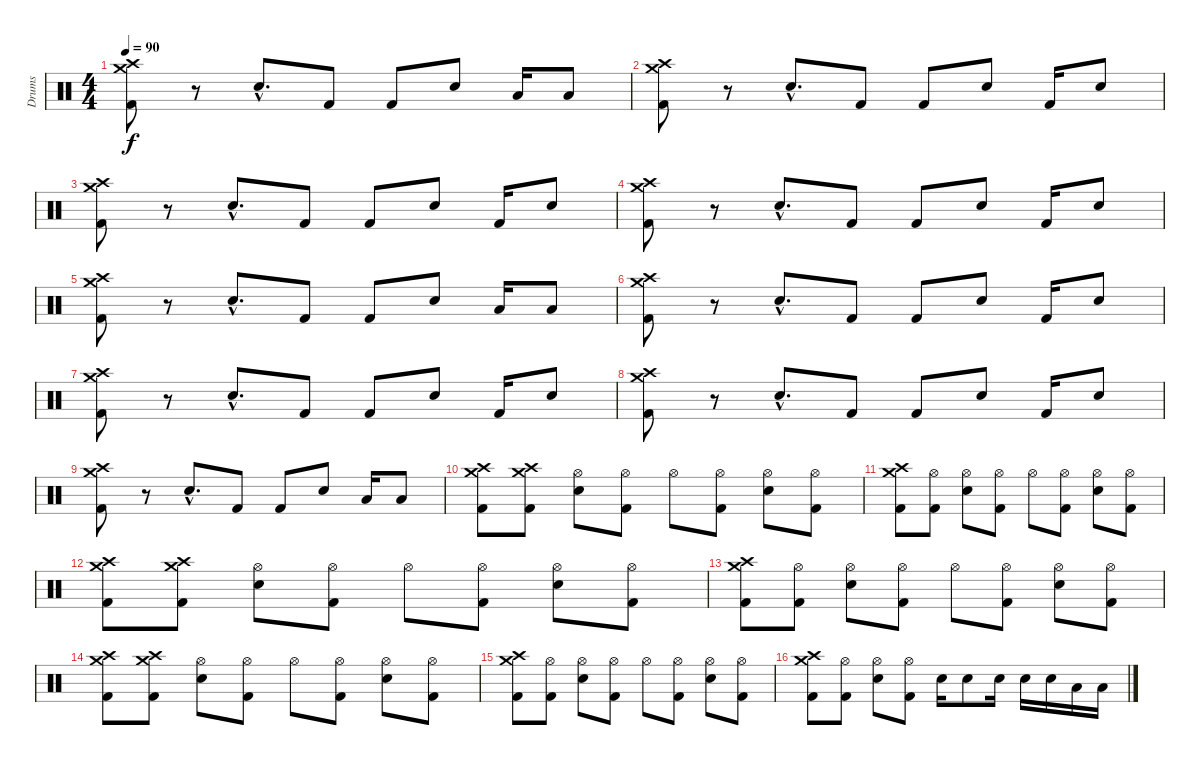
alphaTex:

\track ("Drums" "Drums") {instrument percussion}
\staff {score}
\articulation defaults
\ts (4 4)
\tempo 90
\clef neutral
\ks c
("Crash high (hit)" "Crash medium (hit)" "Kick (hit) 2").8{dy f} r.8 "Snare (hit) 2"{hac}.8{d} "Kick (hit) 2".8 "Kick (hit) 2".8 "Snare (hit) 2".8 "Low Tom (hit)".16 "Low Tom (hit)".8 |
("Crash high (hit)" "Crash medium (hit)" "Kick (hit) 2").8 r.8 "Snare (hit) 2"{hac}.8{d} "Kick (hit) 2".8 "Kick (hit) 2".8 "Snare (hit) 2".8 "Kick (hit) 2".16 "Snare (hit) 2".8 |
("Crash high (hit)" "Crash medium (hit)" "Kick (hit) 2").8 r.8 "Snare (hit) 2"{hac}.8{d} "Kick (hit) 2".8 "Kick (hit) 2".8 "Snare (hit) 2".8 "Kick (hit) 2".16 "Snare (hit) 2".8 |
("Crash high (hit)" "Crash medium (hit)" "Kick (hit) 2").8 r.8 "Snare (hit) 2"{hac}.8{d} "Kick (hit) 2".8 "Kick (hit) 2".8 "Snare (hit) 2".8 "Kick (hit) 2".16 "Snare (hit) 2".8 |
("Crash high (hit)" "Crash medium (hit)" "Kick (hit) 2").8 r.8 "Snare (hit) 2"{hac}.8{d} "Kick (hit) 2".8 "Kick (hit) 2".8 "Snare (hit) 2".8 "Low Tom (hit)".16 "Low Tom (hit)".8 |
("Crash high (hit)" "Crash medium (hit)" "Kick (hit) 2").8 r.8 "Snare (hit) 2"{hac}.8{d} "Kick (hit) 2".8 "Kick (hit) 2".8 "Snare (hit) 2".8 "Kick (hit) 2".16 "Snare (hit) 2".8 |
("Crash high (hit)" "Crash medium (hit)" "Kick (hit) 2").8 r.8 "Snare (hit) 2"{hac}.8{d} "Kick (hit) 2".8 "Kick (hit) 2".8 "Snare (hit) 2".8 "Kick (hit) 2".16 "Snare (hit) 2".8 |
("Crash high (hit)" "Crash medium (hit)" "Kick (hit) 2").8 r.8 "Snare (hit) 2"{hac}.8{d} "Kick (hit) 2".8 "Kick (hit) 2".8 "Snare (hit) 2".8 "Kick (hit) 2".16 "Snare (hit) 2".8 |
("Crash high (hit)" "Crash medium (hit)" "Kick (hit) 2").8 r.8 "Snare (hit) 2"{hac}.8{d} "Kick (hit) 2".8 "Kick (hit) 2".8 "Snare (hit) 2".8 "Low Tom (hit)".16 "Low Tom (hit)".8 |
("Crash high (hit)" "Crash medium (hit)" "Kick (hit) 2").8 ("Crash high (hit)" "Crash medium (hit)" "Kick (hit) 2").8 ("Hi-Hat (open)" "Snare (hit) 2").8 ("Hi-Hat (open)" "Kick (hit) 2").8 "Hi-Hat (open)".8 ("Hi-Hat (open)" "Kick (hit) 2").8 ("Hi-Hat (open)" "Snare (hit) 2").8 ("Hi-Hat (open)" "Kick (hit) 2").8 |
("Crash high (hit)" "Crash medium (hit)" "Kick (hit) 2").8 ("Hi-Hat (open)" "Kick (hit) 2").8 ("Hi-Hat (open)" "Snare (hit) 2").8 ("Hi-Hat (open)" "Kick (hit) 2").8 "Hi-Hat (open)".8 ("Hi-Hat (open)" "Kick (hit) 2").8 ("Hi-Hat (open)" "Snare (hit) 2").8 ("Hi-Hat (open)" "Kick (hit) 2").8 |
("Crash high (hit)" "Crash medium (hit)" "Kick (hit) 2").8 ("Crash high (hit)" "Crash medium (hit)" "Kick (hit) 2").8 ("Hi-Hat (open)" "Snare (hit) 2").8 ("Hi-Hat (open)" "Kick (hit) 2").8 "Hi-Hat (open)".8 ("Hi-Hat (open)" "Kick (hit) 2").8 ("Hi-Hat (open)" "Snare (hit) 2").8 ("Hi-Hat (open)" "Kick (hit) 2").8 |
("Crash high (hit)" "Crash medium (hit)" "Kick (hit) 2").8 ("Hi-Hat (open)" "Kick (hit) 2").8 ("Hi-Hat (open)" "Snare (hit) 2").8 ("Hi-Hat (open)" "Kick (hit) 2").8 "Hi-Hat (open)".8 ("Hi-Hat (open)" "Kick (hit) 2").8 ("Hi-Hat (open)" "Snare (hit) 2").8 ("Hi-Hat (open)" "Kick (hit) 2").8 |
("Crash high (hit)" "Crash medium (hit)" "Kick (hit) 2").8 ("Crash high (hit)" "Crash medium (hit)" "Kick (hit) 2").8 ("Hi-Hat (open)" "Snare (hit) 2").8 ("Hi-Hat (open)" "Kick (hit) 2").8 "Hi-Hat (open)".8 ("Hi-Hat (open)" "Kick (hit) 2").8 ("Hi-Hat (open)" "Snare (hit) 2").8 ("Hi-Hat (open)" "Kick (hit) 2").8 |
("Crash high (hit)" "Crash medium (hit)" "Kick (hit) 2").8 ("Hi-Hat (open)" "Kick (hit) 2").8 ("Hi-Hat (open)" "Snare (hit) 2").8 ("Hi-Hat (open)" "Kick (hit) 2").8 "Hi-Hat (open)".8 ("Hi-Hat (open)" "Kick (hit) 2").8 ("Hi-Hat (open)" "Snare (hit) 2").8 ("Hi-Hat (open)" "Kick (hit) 2").8 |
("Crash medium (hit)" "Crash high (hit)" "Kick (hit) 2").8 ("Hi-Hat (open)" "Kick (hit) 2").8 ("Hi-Hat (open)" "Snare (hit) 2").8 ("Hi-Hat (open)" "Kick (hit) 2").8 "Snare (hit) 2".16 "Snare (hit) 2".8 "Snare (hit) 2".16 "Snare (hit) 2".16 "Snare (hit) 2".16 "Low Tom (hit)".16 "Low Tom (hit)".16
